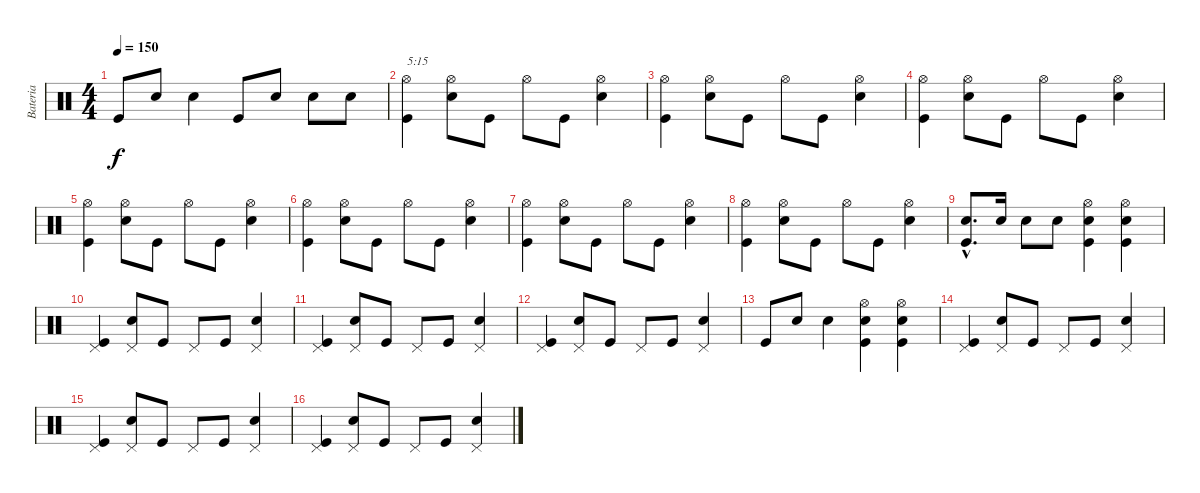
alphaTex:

\track ("Bateria" "Bateria") {instrument percussion}
\staff {score}
\articulation defaults
\ts (4 4)
\tempo 150
\clef neutral
\ks c "Kick (hit)".8{dy f} "Snare (hit) 2".8 "Snare (hit) 2".4 "Kick (hit)".8 "Snare (hit) 2".8 "Snare (hit) 2".8 "Snare (hit) 2".8
|
("Kick (hit)" "Hi-Hat (open)").4{txt "5:15"} ("Snare (hit) 2" "Hi-Hat (open)").8 "Kick (hit)".8 "Hi-Hat (open)".8 "Kick (hit)".8 ("Snare (hit) 2" "Hi-Hat (open)").4 |
("Kick (hit)" "Hi-Hat (open)").4 ("Snare (hit) 2" "Hi-Hat (open)").8 "Kick (hit)".8 "Hi-Hat (open)".8 "Kick (hit)".8 ("Snare (hit) 2" "Hi-Hat (open)").4 |
("Kick (hit)" "Hi-Hat (open)").4 ("Snare (hit) 2" "Hi-Hat (open)").8 "Kick (hit)".8 "Hi-Hat (open)".8 "Kick (hit)".8 ("Snare (hit) 2" "Hi-Hat (open)").4 |
("Kick (hit)" "Hi-Hat (open)").4 ("Snare (hit) 2" "Hi-Hat (open)").8 "Kick (hit)".8 "Hi-Hat (open)".8 "Kick (hit)".8 ("Snare (hit) 2" "Hi-Hat (open)").4 |
("Kick (hit)" "Hi-Hat (open)").4 ("Snare (hit) 2" "Hi-Hat (open)").8 "Kick (hit)".8 "Hi-Hat (open)".8 "Kick (hit)".8 ("Snare (hit) 2" "Hi-Hat (open)").4 |
("Kick (hit)" "Hi-Hat (open)").4 ("Snare (hit) 2" "Hi-Hat (open)").8 "Kick (hit)".8 "Hi-Hat (open)".8 "Kick (hit)".8 ("Snare (hit) 2" "Hi-Hat (open)").4 |
("Kick (hit)" "Hi-Hat (open)").4 ("Snare (hit) 2" "Hi-Hat (open)").8 "Kick (hit)".8 "Hi-Hat (open)".8 "Kick (hit)".8 ("Snare (hit) 2" "Hi-Hat (open)").4 |
("Kick (hit)"{hac} "Snare (hit) 2"{hac}).8{d} "Snare (hit) 2".16 "Snare (hit) 2".8 "Snare (hit) 2".8 ("Kick (hit)" "Snare (hit) 2" "Hi-Hat (open)").4 ("Kick (hit)" "Snare (hit) 2" "Hi-Hat (open)").4 |
("Kick (hit)" "Pedal Hi-Hat (hit)").4 ("Snare (hit) 2" "Pedal Hi-Hat (hit)").8 "Kick (hit)".8 "Pedal Hi-Hat (hit)".8 "Kick (hit)".8 ("Snare (hit) 2" "Pedal Hi-Hat (hit)").4 |
("Kick (hit)" "Pedal Hi-Hat (hit)").4 ("Snare (hit) 2" "Pedal Hi-Hat (hit)").8 "Kick (hit)".8 "Pedal Hi-Hat (hit)".8 "Kick (hit)".8 ("Snare (hit) 2" "Pedal Hi-Hat (hit)").4 |
("Kick (hit)" "Pedal Hi-Hat (hit)").4 ("Snare (hit) 2" "Pedal Hi-Hat (hit)").8 "Kick (hit)".8 "Pedal Hi-Hat (hit)".8 "Kick (hit)".8 ("Snare (hit) 2" "Pedal Hi-Hat (hit)").4 |
"Kick (hit)".8 "Snare (hit) 2".8 "Snare (hit) 2".4 ("Kick (hit)" "Snare (hit) 2" "Hi-Hat (open)").4 ("Kick (hit)" "Snare (hit) 2" "Hi-Hat (open)").4 |
("Kick (hit)" "Pedal Hi-Hat (hit)").4 ("Snare (hit) 2" "Pedal Hi-Hat (hit)").8 "Kick (hit)".8 "Pedal Hi-Hat (hit)".8 "Kick (hit)".8 ("Snare (hit) 2" "Pedal Hi-Hat (hit)").4 |
("Kick (hit)" "Pedal Hi-Hat (hit)").4 ("Snare (hit) 2" "Pedal Hi-Hat (hit)").8 "Kick (hit)".8 "Pedal Hi-Hat (hit)".8 "Kick (hit)".8 ("Snare (hit) 2" "Pedal Hi-Hat (hit)").4 |
("Kick (hit)" "Pedal Hi-Hat (hit)").4 ("Snare (hit) 2" "Pedal Hi-Hat (hit)").8 "Kick (hit)".8 "Pedal Hi-Hat (hit)".8 "Kick (hit)".8 ("Snare (hit) 2" "Pedal Hi-Hat (hit)").4
